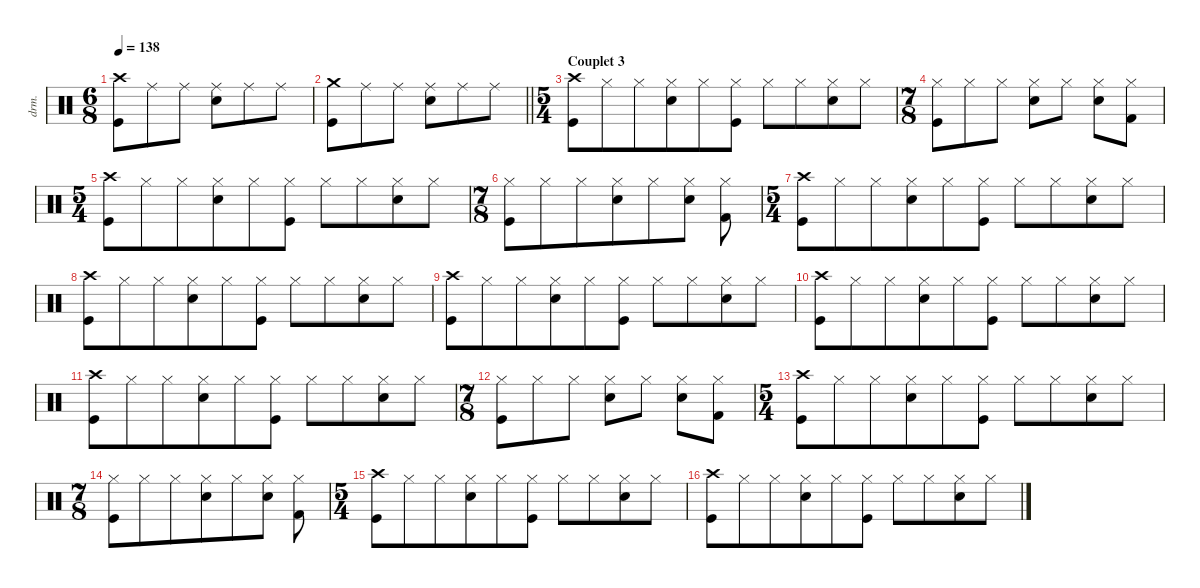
\defaultSystemsLayout 4
\hideDynamics
\bracketExtendMode nobrackets
\track ("Percussions" "drm.") {instrument percussion}
\staff {score}
\articulation defaults
\ts (6 8)
\tempo 138
\clef neutral
\ks aminor
("Crash high (hit)" "Kick (hit)").8{dy f} "Ride (middle)".8 "Ride (middle)".8 ("Ride (middle)" "Snare (hit) 2").8 "Ride (middle)".8 "Ride (middle)".8 |
\barLineRight lightlight
("Crash medium (hit)" "Kick (hit)").8 "Ride (middle)".8 "Ride (middle)".8 ("Ride (middle)" "Snare (hit) 2").8 "Ride (middle)".8 "Ride (middle)".8 |
\ts (5 4)
\beaming (8 6 4)
\section ("" "Couplet 3")
("Crash high (hit)" "Kick (hit)").8 "Hi-Hat (closed)".8 "Hi-Hat (closed)".8 ("Hi-Hat (closed)" "Snare (hit) 2").8 "Hi-Hat (closed)".8 ("Hi-Hat (closed)" "Kick (hit)").8 "Hi-Hat (closed)".8 "Hi-Hat (closed)".8 ("Hi-Hat (closed)" "Snare (hit) 2").8 "Hi-Hat (closed)".8 |
\ts (7 8)
\beaming (8 3 2 2)
("Hi-Hat (closed)" "Kick (hit)").8 "Hi-Hat (closed)".8 "Hi-Hat (closed)".8 ("Hi-Hat (closed)" "Snare (hit) 2").8 "Hi-Hat (closed)".8 ("Hi-Hat (closed)" "Snare (hit) 2").8 ("Hi-Hat (closed)" "Kick (hit) 2").8 |
\ts (5 4)
\beaming (8 6 4)
("Crash high (hit)" "Kick (hit)").8 "Hi-Hat (closed)".8 "Hi-Hat (closed)".8 ("Hi-Hat (closed)" "Snare (hit) 2").8 "Hi-Hat (closed)".8 ("Hi-Hat (closed)" "Kick (hit)").8 "Hi-Hat (closed)".8 "Hi-Hat (closed)".8 ("Hi-Hat (closed)" "Snare (hit) 2").8 "Hi-Hat (closed)".8 |
\ts (7 8)
\beaming (8 6 4)
("Hi-Hat (closed)" "Kick (hit)").8 "Hi-Hat (closed)".8 "Hi-Hat (closed)".8 ("Hi-Hat (closed)" "Snare (hit) 2").8 "Hi-Hat (closed)".8 ("Hi-Hat (closed)" "Snare (hit) 2").8 ("Hi-Hat (closed)" "Kick (hit) 2").8 |
\ts (5 4)
\beaming (8 6 4)
("Crash high (hit)" "Kick (hit)").8 "Hi-Hat (closed)".8 "Hi-Hat (closed)".8 ("Hi-Hat (closed)" "Snare (hit) 2").8 "Hi-Hat (closed)".8 ("Hi-Hat (closed)" "Kick (hit)").8 "Hi-Hat (closed)".8 "Hi-Hat (closed)".8 ("Hi-Hat (closed)" "Snare (hit) 2").8 "Hi-Hat (closed)".8 |
("Crash high (hit)" "Kick (hit)").8 "Hi-Hat (closed)".8 "Hi-Hat (closed)".8 ("Hi-Hat (closed)" "Snare (hit) 2").8 "Hi-Hat (closed)".8 ("Hi-Hat (closed)" "Kick (hit)").8 "Hi-Hat (closed)".8 "Hi-Hat (closed)".8 ("Hi-Hat (closed)" "Snare (hit) 2").8 "Hi-Hat (closed)".8 |
("Crash high (hit)" "Kick (hit)").8 "Hi-Hat (closed)".8 "Hi-Hat (closed)".8 ("Hi-Hat (closed)" "Snare (hit) 2").8 "Hi-Hat (closed)".8 ("Hi-Hat (closed)" "Kick (hit)").8 "Hi-Hat (closed)".8 "Hi-Hat (closed)".8 ("Hi-Hat (closed)" "Snare (hit) 2").8 "Hi-Hat (closed)".8 |
("Crash high (hit)" "Kick (hit)").8 "Hi-Hat (closed)".8 "Hi-Hat (closed)".8 ("Hi-Hat (closed)" "Snare (hit) 2").8 "Hi-Hat (closed)".8 ("Hi-Hat (closed)" "Kick (hit)").8 "Hi-Hat (closed)".8 "Hi-Hat (closed)".8 ("Hi-Hat (closed)" "Snare (hit) 2").8 "Hi-Hat (closed)".8 |
("Crash high (hit)" "Kick (hit)").8 "Hi-Hat (closed)".8 "Hi-Hat (closed)".8 ("Hi-Hat (closed)" "Snare (hit) 2").8 "Hi-Hat (closed)".8 ("Hi-Hat (closed)" "Kick (hit)").8 "Hi-Hat (closed)".8 "Hi-Hat (closed)".8 ("Hi-Hat (closed)" "Snare (hit) 2").8 "Hi-Hat (closed)".8 |
\ts (7 8)
\beaming (8 3 2 2)
("Hi-Hat (closed)" "Kick (hit)").8 "Hi-Hat (closed)".8 "Hi-Hat (closed)".8 ("Hi-Hat (closed)" "Snare (hit) 2").8 "Hi-Hat (closed)".8 ("Hi-Hat (closed)" "Snare (hit) 2").8 ("Hi-Hat (closed)" "Kick (hit) 2").8 |
\ts (5 4)
\beaming (8 6 4)
("Crash high (hit)" "Kick (hit)").8 "Hi-Hat (closed)".8 "Hi-Hat (closed)".8 ("Hi-Hat (closed)" "Snare (hit) 2").8 "Hi-Hat (closed)".8 ("Hi-Hat (closed)" "Kick (hit)").8 "Hi-Hat (closed)".8 "Hi-Hat (closed)".8 ("Hi-Hat (closed)" "Snare (hit) 2").8 "Hi-Hat (closed)".8 |
\ts (7 8)
\beaming (8 6 4)
("Hi-Hat (closed)" "Kick (hit)").8 "Hi-Hat (closed)".8 "Hi-Hat (closed)".8 ("Hi-Hat (closed)" "Snare (hit) 2").8 "Hi-Hat (closed)".8 ("Hi-Hat (closed)" "Snare (hit) 2").8 ("Hi-Hat (closed)" "Kick (hit) 2").8 |
\ts (5 4)
\beaming (8 6 4)
("Crash high (hit)" "Kick (hit)").8 "Hi-Hat (closed)".8 "Hi-Hat (closed)".8 ("Hi-Hat (closed)" "Snare (hit) 2").8 "Hi-Hat (closed)".8 ("Hi-Hat (closed)" "Kick (hit)").8 "Hi-Hat (closed)".8 "Hi-Hat (closed)".8 ("Hi-Hat (closed)" "Snare (hit) 2").8 "Hi-Hat (closed)".8 |
("Crash high (hit)" "Kick (hit)").8 "Hi-Hat (closed)".8 "Hi-Hat (closed)".8 ("Hi-Hat (closed)" "Snare (hit) 2").8 "Hi-Hat (closed)".8 ("Hi-Hat (closed)" "Kick (hit)").8 "Hi-Hat (closed)".8 "Hi-Hat (closed)".8 ("Hi-Hat (closed)" "Snare (hit) 2").8 "Hi-Hat (closed)".8
